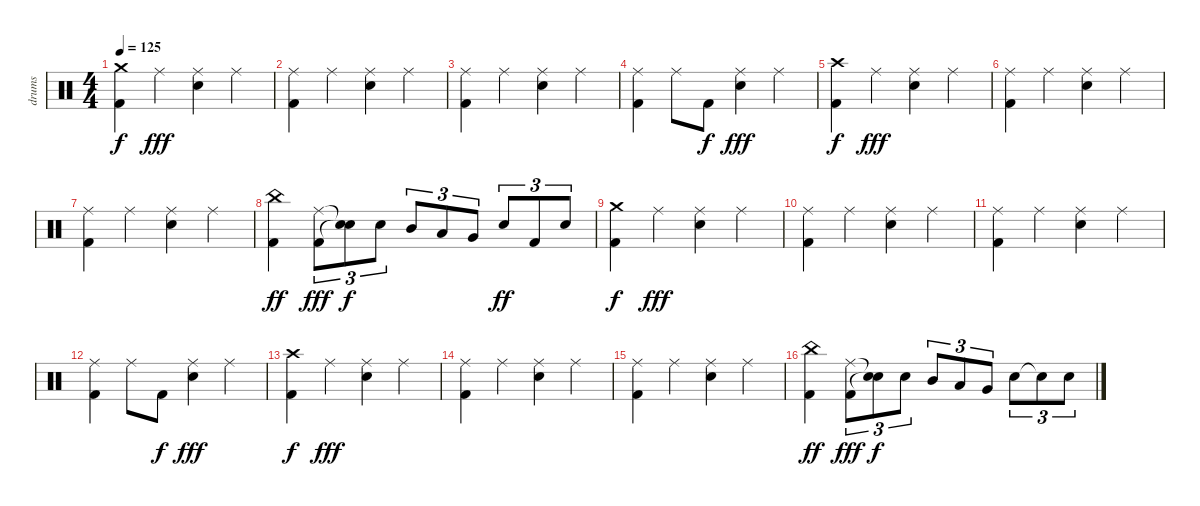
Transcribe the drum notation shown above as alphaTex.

\track ("drums" "drums") {instrument percussion}
\staff {score}
\articulation defaults
\ts (4 4)
\tempo 125
\clef neutral
\ks c
("Kick (hit) 2" "Crash medium (hit)").4{dy f} "Ride (middle)".4{dy fff} ("Ride (middle)" "Snare (hit) 2").4 "Ride (middle)".4 |
("Kick (hit) 2" "Ride (middle)").4 "Ride (middle)".4 ("Snare (hit) 2" "Ride (middle)").4 "Ride (middle)".4 |
("Ride (middle)" "Kick (hit) 2").4 "Ride (middle)".4 ("Ride (middle)" "Snare (hit) 2").4 "Ride (middle)".4 |
("Ride (middle)" "Kick (hit) 2").4 "Ride (middle)".8 "Kick (hit) 2".8{dy f} ("Ride (middle)" "Snare (hit) 2").4{dy fff} "Ride (middle)".4 |
("Kick (hit) 2" "Crash high (hit)").4{dy f} "Ride (middle)".4{dy fff} ("Ride (middle)" "Snare (hit) 2").4 "Ride (middle)".4 |
("Kick (hit) 2" "Ride (middle)").4 "Ride (middle)".4 ("Snare (hit) 2" "Ride (middle)").4 "Ride (middle)".4 |
("Ride (middle)" "Kick (hit) 2").4 "Ride (middle)".4 ("Ride (middle)" "Snare (hit) 2").4 "Ride (middle)".4 |
("China (hit)" "Kick (hit) 2").4{dy ff} ("Kick (hit) 2" "Ride (middle)").8{tu (3 2) dy fff} ("Snare (hit)"{t} "Snare (hit)"{t}).8{tu (3 2) dy f} "Snare (hit) 2".8{tu (3 2)} "Mid Tom (hit)".8{tu (3 2)} "Low Tom (hit)".8{tu (3 2)} "Very Low Tom (hit)".8{tu (3 2)} "Snare (hit) 2".8{tu (3 2) dy ff} "Kick (hit) 2".8{tu (3 2)} "Snare (hit) 2".8{tu (3 2)} |
("Kick (hit) 2" "Crash medium (hit)").4{dy f} "Ride (middle)".4{dy fff} ("Ride (middle)" "Snare (hit) 2").4 "Ride (middle)".4 |
("Kick (hit) 2" "Ride (middle)").4 "Ride (middle)".4 ("Snare (hit) 2" "Ride (middle)").4 "Ride (middle)".4 |
("Ride (middle)" "Kick (hit) 2").4 "Ride (middle)".4 ("Ride (middle)" "Snare (hit) 2").4 "Ride (middle)".4 |
("Ride (middle)" "Kick (hit) 2").4 "Ride (middle)".8 "Kick (hit) 2".8{dy f} ("Ride (middle)" "Snare (hit) 2").4{dy fff} "Ride (middle)".4 |
("Kick (hit) 2" "Crash high (hit)").4{dy f} "Ride (middle)".4{dy fff} ("Ride (middle)" "Snare (hit) 2").4 "Ride (middle)".4 |
("Kick (hit) 2" "Ride (middle)").4 "Ride (middle)".4 ("Snare (hit) 2" "Ride (middle)").4 "Ride (middle)".4 |
("Ride (middle)" "Kick (hit) 2").4 "Ride (middle)".4 ("Ride (middle)" "Snare (hit) 2").4 "Ride (middle)".4 |
("China (hit)" "Kick (hit) 2").4{dy ff} ("Kick (hit) 2" "Ride (middle)").8{tu (3 2) dy fff} ("Snare (hit)"{t} "Snare (hit)"{t}).8{tu (3 2) dy f} "Snare (hit) 2".8{tu (3 2)} "Mid Tom (hit)".8{tu (3 2)} "Low Tom (hit)".8{tu (3 2)} "Very Low Tom (hit)".8{tu (3 2)} "Snare (hit) 2".8{tu (3 2)} "Snare (hit)"{t}.8{tu (3 2)} "Snare (hit) 2".8{tu (3 2)}
